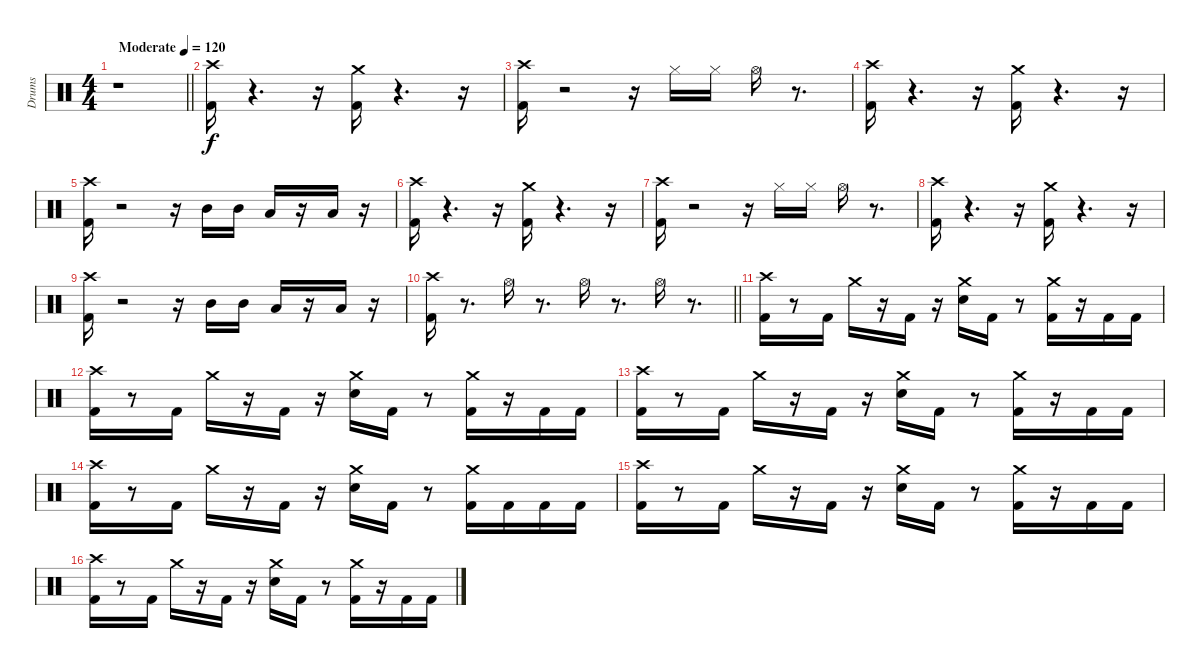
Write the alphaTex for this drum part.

\track ("Drums" "Drums") {instrument percussion}
\staff {score}
\articulation defaults
\ts (4 4)
\tempo (120 "Moderate")
\clef neutral
\barLineRight lightlight
\ks c
r.1{dy f} |
\section ("" " ")
("Kick (hit) 2" "Crash high (hit)").16 r.4{d} r.16 ("Kick (hit) 2" "Crash medium (hit)").16 r.4{d} r.16 |
("Kick (hit) 2" "Crash high (hit)").16 r.2 r.16 "Hi-Hat (closed)".16 "Hi-Hat (closed)".16 "Hi-Hat (open)".16 r.8{d} |
("Kick (hit) 2" "Crash high (hit)").16 r.4{d} r.16 ("Kick (hit) 2" "Crash medium (hit)").16 r.4{d} r.16 |
("Kick (hit) 2" "Crash high (hit)").16 r.2 r.16 "Mid Tom (hit)".16 "Mid Tom (hit)".16 "Low Tom (hit)".16 r.16 "Low Tom (hit)".16 r.16 |
("Kick (hit) 2" "Crash high (hit)").16 r.4{d} r.16 ("Kick (hit) 2" "Crash medium (hit)").16 r.4{d} r.16 |
("Kick (hit) 2" "Crash high (hit)").16 r.2 r.16 "Hi-Hat (closed)".16 "Hi-Hat (closed)".16 "Hi-Hat (open)".16 r.8{d} |
("Kick (hit) 2" "Crash high (hit)").16 r.4{d} r.16 ("Kick (hit) 2" "Crash medium (hit)").16 r.4{d} r.16 |
("Kick (hit) 2" "Crash high (hit)").16 r.2 r.16 "Mid Tom (hit)".16 "Mid Tom (hit)".16 "Low Tom (hit)".16 r.16 "Low Tom (hit)".16 r.16 |
\barLineRight lightlight
("Kick (hit) 2" "Crash high (hit)").16 r.8{d} "Hi-Hat (open)".16 r.8{d} "Hi-Hat (open)".16 r.8{d} "Hi-Hat (open)".16 r.8{d} |
\section ("" " ")
("Kick (hit) 2" "Crash high (hit)").16 r.8 "Kick (hit) 2".16 "Crash medium (hit)".16 r.16 "Kick (hit) 2".16 r.16 ("Snare (hit) 2" "Crash medium (hit)").16 "Kick (hit) 2".16 r.8 ("Kick (hit) 2" "Crash medium (hit)").16 r.16 "Kick (hit) 2".16 "Kick (hit) 2".16 |
("Kick (hit) 2" "Crash high (hit)").16 r.8 "Kick (hit) 2".16 "Crash medium (hit)".16 r.16 "Kick (hit) 2".16 r.16 ("Snare (hit) 2" "Crash medium (hit)").16 "Kick (hit) 2".16 r.8 ("Kick (hit) 2" "Crash medium (hit)").16 r.16 "Kick (hit) 2".16 "Kick (hit) 2".16 |
("Kick (hit) 2" "Crash high (hit)").16 r.8 "Kick (hit) 2".16 "Crash medium (hit)".16 r.16 "Kick (hit) 2".16 r.16 ("Snare (hit) 2" "Crash medium (hit)").16 "Kick (hit) 2".16 r.8 ("Kick (hit) 2" "Crash medium (hit)").16 r.16 "Kick (hit) 2".16 "Kick (hit) 2".16 |
("Kick (hit) 2" "Crash high (hit)").16 r.8 "Kick (hit) 2".16 "Crash medium (hit)".16 r.16 "Kick (hit) 2".16 r.16 ("Snare (hit) 2" "Crash medium (hit)").16 "Kick (hit) 2".16 r.8 ("Kick (hit) 2" "Crash medium (hit)").16 "Kick (hit) 2".16 "Kick (hit) 2".16 "Kick (hit) 2".16 |
("Kick (hit) 2" "Crash high (hit)").16 r.8 "Kick (hit) 2".16 "Crash medium (hit)".16 r.16 "Kick (hit) 2".16 r.16 ("Snare (hit) 2" "Crash medium (hit)").16 "Kick (hit) 2".16 r.8 ("Kick (hit) 2" "Crash medium (hit)").16 r.16 "Kick (hit) 2".16 "Kick (hit) 2".16 |
("Kick (hit) 2" "Crash high (hit)").16 r.8 "Kick (hit) 2".16 "Crash medium (hit)".16 r.16 "Kick (hit) 2".16 r.16 ("Snare (hit) 2" "Crash medium (hit)").16 "Kick (hit) 2".16 r.8 ("Kick (hit) 2" "Crash medium (hit)").16 r.16 "Kick (hit) 2".16 "Kick (hit) 2".16
